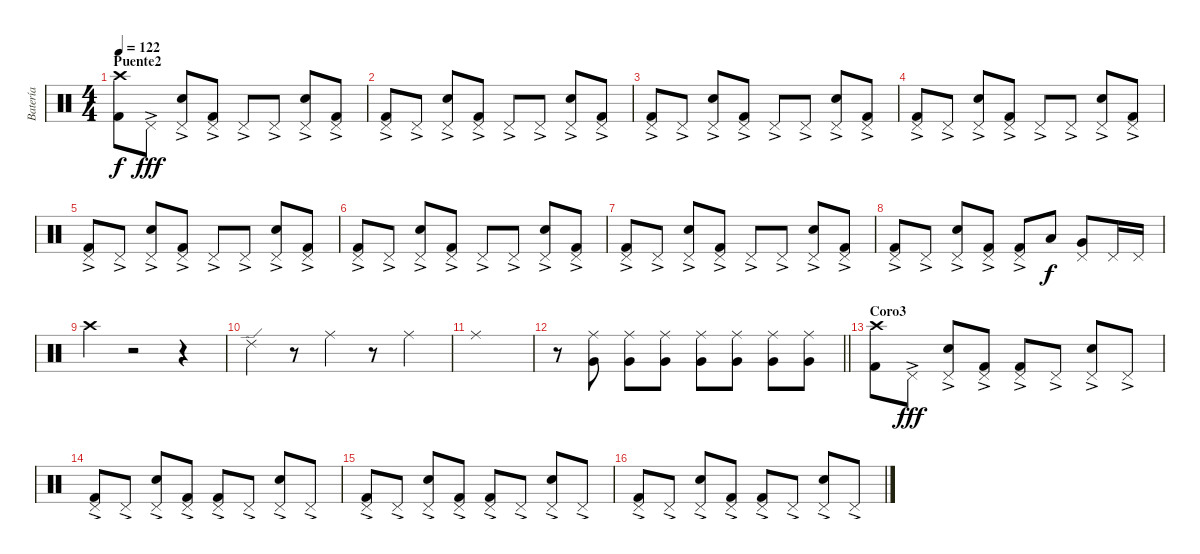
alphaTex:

\track ("Batería" "Batería") {instrument percussion}
\staff {score}
\articulation defaults
\ts (4 4)
\section ("" "Puente2")
\tempo 122
\clef neutral
\ks c
("Crash high (hit)" "Kick (hit) 2").8{dy f} "Pedal Hi-Hat (hit)"{ac}.8{dy fff} ("Pedal Hi-Hat (hit)"{ac} "Electric Snare (hit)").8 ("Pedal Hi-Hat (hit)"{ac} "Kick (hit) 2").8 "Pedal Hi-Hat (hit)"{ac}.8 "Pedal Hi-Hat (hit)"{ac}.8 ("Pedal Hi-Hat (hit)"{ac} "Electric Snare (hit)").8 ("Pedal Hi-Hat (hit)"{ac} "Kick (hit) 2").8 |
("Pedal Hi-Hat (hit)"{ac} "Kick (hit) 2").8 "Pedal Hi-Hat (hit)"{ac}.8 ("Pedal Hi-Hat (hit)"{ac} "Electric Snare (hit)").8 ("Pedal Hi-Hat (hit)"{ac} "Kick (hit) 2").8 "Pedal Hi-Hat (hit)"{ac}.8 "Pedal Hi-Hat (hit)"{ac}.8 ("Pedal Hi-Hat (hit)"{ac} "Electric Snare (hit)").8 ("Pedal Hi-Hat (hit)"{ac} "Kick (hit) 2").8 |
("Pedal Hi-Hat (hit)"{ac} "Kick (hit) 2").8 "Pedal Hi-Hat (hit)"{ac}.8 ("Pedal Hi-Hat (hit)"{ac} "Electric Snare (hit)").8 ("Pedal Hi-Hat (hit)"{ac} "Kick (hit) 2").8 "Pedal Hi-Hat (hit)"{ac}.8 "Pedal Hi-Hat (hit)"{ac}.8 ("Pedal Hi-Hat (hit)"{ac} "Electric Snare (hit)").8 ("Pedal Hi-Hat (hit)"{ac} "Kick (hit) 2").8 |
("Pedal Hi-Hat (hit)"{ac} "Kick (hit) 2").8 "Pedal Hi-Hat (hit)"{ac}.8 ("Pedal Hi-Hat (hit)"{ac} "Electric Snare (hit)").8 ("Pedal Hi-Hat (hit)"{ac} "Kick (hit) 2").8 "Pedal Hi-Hat (hit)"{ac}.8 "Pedal Hi-Hat (hit)"{ac}.8 ("Pedal Hi-Hat (hit)"{ac} "Electric Snare (hit)").8 ("Pedal Hi-Hat (hit)"{ac} "Kick (hit) 2").8 |
("Pedal Hi-Hat (hit)"{ac} "Kick (hit) 2").8 "Pedal Hi-Hat (hit)"{ac}.8 ("Pedal Hi-Hat (hit)"{ac} "Electric Snare (hit)").8 ("Pedal Hi-Hat (hit)"{ac} "Kick (hit) 2").8 "Pedal Hi-Hat (hit)"{ac}.8 "Pedal Hi-Hat (hit)"{ac}.8 ("Pedal Hi-Hat (hit)"{ac} "Electric Snare (hit)").8 ("Pedal Hi-Hat (hit)"{ac} "Kick (hit) 2").8 |
("Pedal Hi-Hat (hit)"{ac} "Kick (hit) 2").8 "Pedal Hi-Hat (hit)"{ac}.8 ("Pedal Hi-Hat (hit)"{ac} "Electric Snare (hit)").8 ("Pedal Hi-Hat (hit)"{ac} "Kick (hit) 2").8 "Pedal Hi-Hat (hit)"{ac}.8 "Pedal Hi-Hat (hit)"{ac}.8 ("Pedal Hi-Hat (hit)"{ac} "Electric Snare (hit)").8 ("Pedal Hi-Hat (hit)"{ac} "Kick (hit) 2").8 |
("Pedal Hi-Hat (hit)"{ac} "Kick (hit) 2").8 "Pedal Hi-Hat (hit)"{ac}.8 ("Pedal Hi-Hat (hit)"{ac} "Electric Snare (hit)").8 ("Pedal Hi-Hat (hit)"{ac} "Kick (hit) 2").8 "Pedal Hi-Hat (hit)"{ac}.8 "Pedal Hi-Hat (hit)"{ac}.8 ("Pedal Hi-Hat (hit)"{ac} "Electric Snare (hit)").8 ("Pedal Hi-Hat (hit)"{ac} "Kick (hit) 2").8 |
("Pedal Hi-Hat (hit)"{ac} "Kick (hit) 2").8 "Pedal Hi-Hat (hit)"{ac}.8 ("Pedal Hi-Hat (hit)"{ac} "Electric Snare (hit)").8 ("Pedal Hi-Hat (hit)"{ac} "Kick (hit) 2").8 ("Pedal Hi-Hat (hit)"{ac} "Kick (hit) 2").8 "Low Tom (hit)".8{dy f} ("Pedal Hi-Hat (hit)" "Very Low Tom (hit)").8 "Pedal Hi-Hat (hit)".16 "Pedal Hi-Hat (hit)".16 |
"Crash high (hit)".4 r.2 r.4 |
"Ride (edge) 2".4 r.8 "Ride (middle)".4 r.8 "Ride (middle)".4 |
"Ride (middle)".1 |
\barLineRight lightlight
r.8 ("Ride (middle)" "Very Low Tom (hit)").8 ("Ride (middle)" "Very Low Tom (hit)").8 ("Ride (middle)" "Very Low Tom (hit)").8 ("Ride (middle)" "Very Low Tom (hit)").8 ("Ride (middle)" "Very Low Tom (hit)").8 ("Ride (middle)" "Very Low Tom (hit)").8 ("Ride (middle)" "Very Low Tom (hit)").8 |
\section ("" "Coro3")
("Crash high (hit)" "Kick (hit) 2").8 "Pedal Hi-Hat (hit)"{ac}.8{dy fff} ("Pedal Hi-Hat (hit)"{ac} "Electric Snare (hit)").8 ("Pedal Hi-Hat (hit)"{ac} "Kick (hit) 2").8 ("Pedal Hi-Hat (hit)"{ac} "Kick (hit) 2").8 "Pedal Hi-Hat (hit)"{ac}.8 ("Pedal Hi-Hat (hit)"{ac} "Electric Snare (hit)").8 "Pedal Hi-Hat (hit)"{ac}.8 |
("Pedal Hi-Hat (hit)"{ac} "Kick (hit) 2").8 "Pedal Hi-Hat (hit)"{ac}.8 ("Pedal Hi-Hat (hit)"{ac} "Electric Snare (hit)").8 ("Pedal Hi-Hat (hit)"{ac} "Kick (hit) 2").8 ("Pedal Hi-Hat (hit)"{ac} "Kick (hit) 2").8 "Pedal Hi-Hat (hit)"{ac}.8 ("Pedal Hi-Hat (hit)"{ac} "Electric Snare (hit)").8 "Pedal Hi-Hat (hit)"{ac}.8 |
("Pedal Hi-Hat (hit)"{ac} "Kick (hit) 2").8 "Pedal Hi-Hat (hit)"{ac}.8 ("Pedal Hi-Hat (hit)"{ac} "Electric Snare (hit)").8 ("Pedal Hi-Hat (hit)"{ac} "Kick (hit) 2").8 ("Pedal Hi-Hat (hit)"{ac} "Kick (hit) 2").8 "Pedal Hi-Hat (hit)"{ac}.8 ("Pedal Hi-Hat (hit)"{ac} "Electric Snare (hit)").8 "Pedal Hi-Hat (hit)"{ac}.8 |
("Pedal Hi-Hat (hit)"{ac} "Kick (hit) 2").8 "Pedal Hi-Hat (hit)"{ac}.8 ("Pedal Hi-Hat (hit)"{ac} "Electric Snare (hit)").8 ("Pedal Hi-Hat (hit)"{ac} "Kick (hit) 2").8 ("Pedal Hi-Hat (hit)"{ac} "Kick (hit) 2").8 "Pedal Hi-Hat (hit)"{ac}.8 ("Pedal Hi-Hat (hit)"{ac} "Electric Snare (hit)").8 "Pedal Hi-Hat (hit)"{ac}.8
